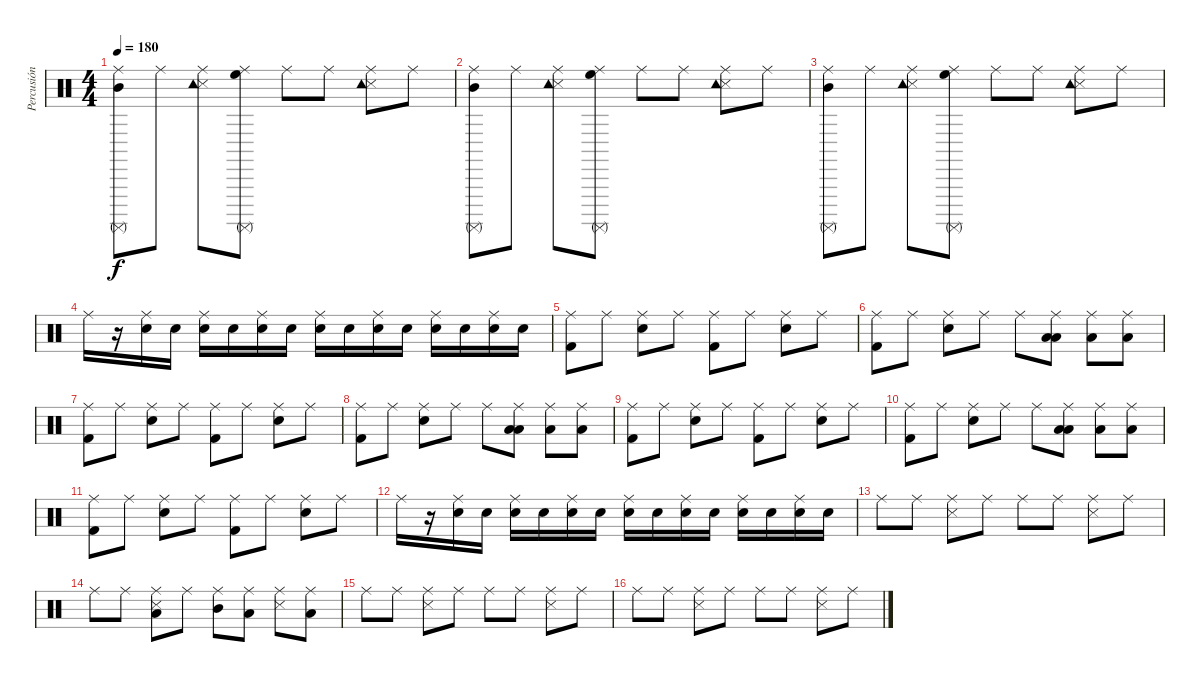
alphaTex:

\track ("Percusión" "Percusión") {instrument percussion}
\staff {score}
\articulation defaults
\ts (4 4)
\tempo 180
\clef neutral
\ks c
("Ride (middle)" "Surdo (mute)" "Mid Tom (hit)").8{dy f} "Ride (middle)".8 ("Snare (side stick) 3" "Ride (middle)" "Tambourine (hit)").8 ("Ride (middle)" "Surdo (mute)" "High Floor Tom (hit)").8 "Ride (middle)".8 "Ride (middle)".8 ("Snare (side stick) 3" "Ride (middle)" "Tambourine (hit)").8 "Ride (middle)".8 |
("Ride (middle)" "Surdo (mute)" "Mid Tom (hit)").8 "Ride (middle)".8 ("Snare (side stick) 3" "Ride (middle)" "Tambourine (hit)").8 ("Ride (middle)" "Surdo (mute)" "High Floor Tom (hit)").8 "Ride (middle)".8 "Ride (middle)".8 ("Snare (side stick) 3" "Ride (middle)" "Tambourine (hit)").8 "Ride (middle)".8 |
("Ride (middle)" "Surdo (mute)" "Mid Tom (hit)").8 "Ride (middle)".8 ("Snare (side stick) 3" "Ride (middle)" "Tambourine (hit)").8 ("Ride (middle)" "Surdo (mute)" "High Floor Tom (hit)").8 "Ride (middle)".8 "Ride (middle)".8 ("Snare (side stick) 3" "Ride (middle)" "Tambourine (hit)").8 "Ride (middle)".8 |
"Ride (middle)".16 r.16 ("Ride (middle)" "Electric Snare (hit)").16 "Electric Snare (hit)".16 ("Ride (middle)" "Electric Snare (hit)").16 "Electric Snare (hit)".16 ("Ride (middle)" "Electric Snare (hit)").16 "Electric Snare (hit)".16 ("Ride (middle)" "Electric Snare (hit)").16 "Electric Snare (hit)".16 ("Ride (middle)" "Electric Snare (hit)").16 "Electric Snare (hit)".16 ("Ride (middle)" "Electric Snare (hit)").16 "Electric Snare (hit)".16 ("Ride (middle)" "Electric Snare (hit)").16 "Electric Snare (hit)".16 |
("Kick (hit) 2" "Ride (middle)").8 "Ride (middle)".8 ("Electric Snare (hit)" "Ride (middle)").8 "Ride (middle)".8 ("Kick (hit) 2" "Ride (middle)").8 "Ride (middle)".8 ("Electric Snare (hit)" "Ride (middle)").8 "Ride (middle)".8 |
("Kick (hit) 2" "Ride (middle)").8 "Ride (middle)".8 ("Electric Snare (hit)" "Ride (middle)").8 "Ride (middle)".8 "Ride (middle)".8 ("Low Floor Tom (hit)" "Ride (middle)" "Low Tom (hit)").8 ("Ride (middle)" "Low Tom (hit)").8 ("Ride (middle)" "Low Tom (hit)").8 |
("Kick (hit) 2" "Ride (middle)").8 "Ride (middle)".8 ("Electric Snare (hit)" "Ride (middle)").8 "Ride (middle)".8 ("Kick (hit) 2" "Ride (middle)").8 "Ride (middle)".8 ("Electric Snare (hit)" "Ride (middle)").8 "Ride (middle)".8 |
("Kick (hit) 2" "Ride (middle)").8 "Ride (middle)".8 ("Electric Snare (hit)" "Ride (middle)").8 "Ride (middle)".8 "Ride (middle)".8 ("Low Floor Tom (hit)" "Ride (middle)" "Low Tom (hit)").8 ("Ride (middle)" "Low Tom (hit)").8 ("Ride (middle)" "Low Tom (hit)").8 |
("Kick (hit) 2" "Ride (middle)").8 "Ride (middle)".8 ("Electric Snare (hit)" "Ride (middle)").8 "Ride (middle)".8 ("Kick (hit) 2" "Ride (middle)").8 "Ride (middle)".8 ("Electric Snare (hit)" "Ride (middle)").8 "Ride (middle)".8 |
("Kick (hit) 2" "Ride (middle)").8 "Ride (middle)".8 ("Electric Snare (hit)" "Ride (middle)").8 "Ride (middle)".8 "Ride (middle)".8 ("Low Floor Tom (hit)" "Ride (middle)" "Low Tom (hit)").8 ("Ride (middle)" "Low Tom (hit)").8 ("Ride (middle)" "Low Tom (hit)").8 |
("Kick (hit) 2" "Ride (middle)").8 "Ride (middle)".8 ("Electric Snare (hit)" "Ride (middle)").8 "Ride (middle)".8 ("Kick (hit) 2" "Ride (middle)").8 "Ride (middle)".8 ("Electric Snare (hit)" "Ride (middle)").8 "Ride (middle)".8 |
"Ride (middle)".16 r.16 ("Ride (middle)" "Electric Snare (hit)").16 "Electric Snare (hit)".16 ("Ride (middle)" "Electric Snare (hit)").16 "Electric Snare (hit)".16 ("Ride (middle)" "Electric Snare (hit)").16 "Electric Snare (hit)".16 ("Ride (middle)" "Electric Snare (hit)").16 "Electric Snare (hit)".16 ("Ride (middle)" "Electric Snare (hit)").16 "Electric Snare (hit)".16 ("Ride (middle)" "Electric Snare (hit)").16 "Electric Snare (hit)".16 ("Ride (middle)" "Electric Snare (hit)").16 "Electric Snare (hit)".16 |
"Ride (middle)".8 "Ride (middle)".8 ("Snare (side stick) 3" "Ride (middle)").8 "Ride (middle)".8 "Ride (middle)".8 "Ride (middle)".8 ("Snare (side stick) 3" "Ride (middle)").8 "Ride (middle)".8 |
"Ride (middle)".8 "Ride (middle)".8 ("Snare (side stick) 3" "Ride (middle)" "Low Floor Tom (hit)").8 "Ride (middle)".8 ("Ride (middle)" "Mid Tom (hit)").8 ("Ride (middle)" "Low Tom (hit)").8 ("Snare (side stick) 3" "Ride (middle)").8 ("Ride (middle)" "Low Tom (hit)").8 |
"Ride (middle)".8 "Ride (middle)".8 ("Snare (side stick) 3" "Ride (middle)").8 "Ride (middle)".8 "Ride (middle)".8 "Ride (middle)".8 ("Snare (side stick) 3" "Ride (middle)").8 "Ride (middle)".8 |
"Ride (middle)".8 "Ride (middle)".8 ("Snare (side stick) 3" "Ride (middle)").8 "Ride (middle)".8 "Ride (middle)".8 "Ride (middle)".8 ("Snare (side stick) 3" "Ride (middle)").8 "Ride (middle)".8
